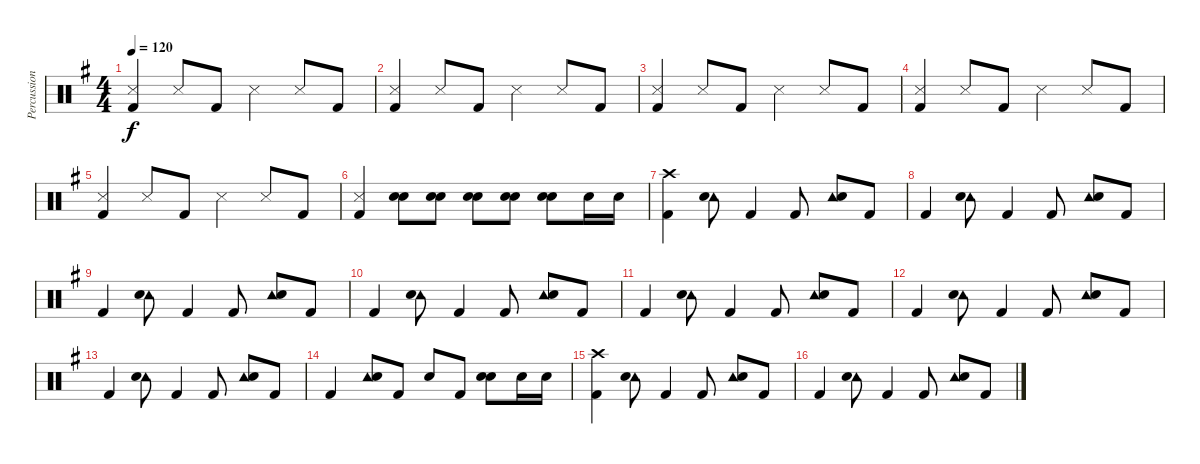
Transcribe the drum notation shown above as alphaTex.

\track ("Percussion" "Percussion") {instrument percussion}
\staff {score}
\articulation defaults
\ts (4 4)
\tempo 120
\clef neutral
\ks g
("Snare (side stick) 3" "Kick (hit) 2").4{dy f} "Snare (side stick) 3".8 "Kick (hit) 2".8 "Snare (side stick) 3".4 "Snare (side stick) 3".8 "Kick (hit) 2".8 |
("Snare (side stick) 3" "Kick (hit) 2").4 "Snare (side stick) 3".8 "Kick (hit) 2".8 "Snare (side stick) 3".4 "Snare (side stick) 3".8 "Kick (hit) 2".8 |
("Snare (side stick) 3" "Kick (hit) 2").4 "Snare (side stick) 3".8 "Kick (hit) 2".8 "Snare (side stick) 3".4 "Snare (side stick) 3".8 "Kick (hit) 2".8 |
("Snare (side stick) 3" "Kick (hit) 2").4 "Snare (side stick) 3".8 "Kick (hit) 2".8 "Snare (side stick) 3".4 "Snare (side stick) 3".8 "Kick (hit) 2".8 |
("Snare (side stick) 3" "Kick (hit) 2").4 "Snare (side stick) 3".8 "Kick (hit) 2".8 "Snare (side stick) 3".4 "Snare (side stick) 3".8 "Kick (hit) 2".8 |
("Snare (side stick) 3" "Kick (hit) 2").4 ("Snare (hit) 2" "Snare (hit) 2").8{bd 60} ("Snare (hit) 2" "Snare (hit) 2").8{bd 60} ("Snare (hit) 2" "Snare (hit) 2").8{bd 60} ("Snare (hit) 2" "Snare (hit) 2").8{bd 60} ("Snare (hit) 2" "Snare (hit) 2").8{bd 60} "Snare (hit) 2".16 "Snare (hit) 2".16 |
("Crash high (hit)" "Kick (hit) 2").4 ("Tambourine (hit)" "Snare (hit) 2").8 "Kick (hit) 2".4 "Kick (hit) 2".8 ("Tambourine (hit)" "Snare (hit) 2").8 "Kick (hit) 2".8 |
"Kick (hit) 2".4 ("Tambourine (hit)" "Snare (hit) 2").8 "Kick (hit) 2".4 "Kick (hit) 2".8 ("Tambourine (hit)" "Snare (hit) 2").8 "Kick (hit) 2".8 |
"Kick (hit) 2".4 ("Tambourine (hit)" "Snare (hit) 2").8 "Kick (hit) 2".4 "Kick (hit) 2".8 ("Tambourine (hit)" "Snare (hit) 2").8 "Kick (hit) 2".8 |
"Kick (hit) 2".4 ("Tambourine (hit)" "Snare (hit) 2").8 "Kick (hit) 2".4 "Kick (hit) 2".8 ("Tambourine (hit)" "Snare (hit) 2").8 "Kick (hit) 2".8 |
"Kick (hit) 2".4 ("Tambourine (hit)" "Snare (hit) 2").8 "Kick (hit) 2".4 "Kick (hit) 2".8 ("Tambourine (hit)" "Snare (hit) 2").8 "Kick (hit) 2".8 |
"Kick (hit) 2".4 ("Tambourine (hit)" "Snare (hit) 2").8 "Kick (hit) 2".4 "Kick (hit) 2".8 ("Tambourine (hit)" "Snare (hit) 2").8 "Kick (hit) 2".8 |
"Kick (hit) 2".4 ("Tambourine (hit)" "Snare (hit) 2").8 "Kick (hit) 2".4 "Kick (hit) 2".8 ("Tambourine (hit)" "Snare (hit) 2").8 "Kick (hit) 2".8 |
"Kick (hit) 2".4 ("Tambourine (hit)" "Snare (hit) 2").8 "Kick (hit) 2".8 "Snare (hit) 2".8 "Kick (hit) 2".8 ("Snare (hit) 2" "Snare (hit) 2").8{bd 60} "Snare (hit) 2".16 "Snare (hit) 2".16 |
("Crash high (hit)" "Kick (hit) 2").4 ("Tambourine (hit)" "Snare (hit) 2").8 "Kick (hit) 2".4 "Kick (hit) 2".8 ("Tambourine (hit)" "Snare (hit) 2").8 "Kick (hit) 2".8 |
"Kick (hit) 2".4 ("Tambourine (hit)" "Snare (hit) 2").8 "Kick (hit) 2".4 "Kick (hit) 2".8 ("Tambourine (hit)" "Snare (hit) 2").8 "Kick (hit) 2".8
